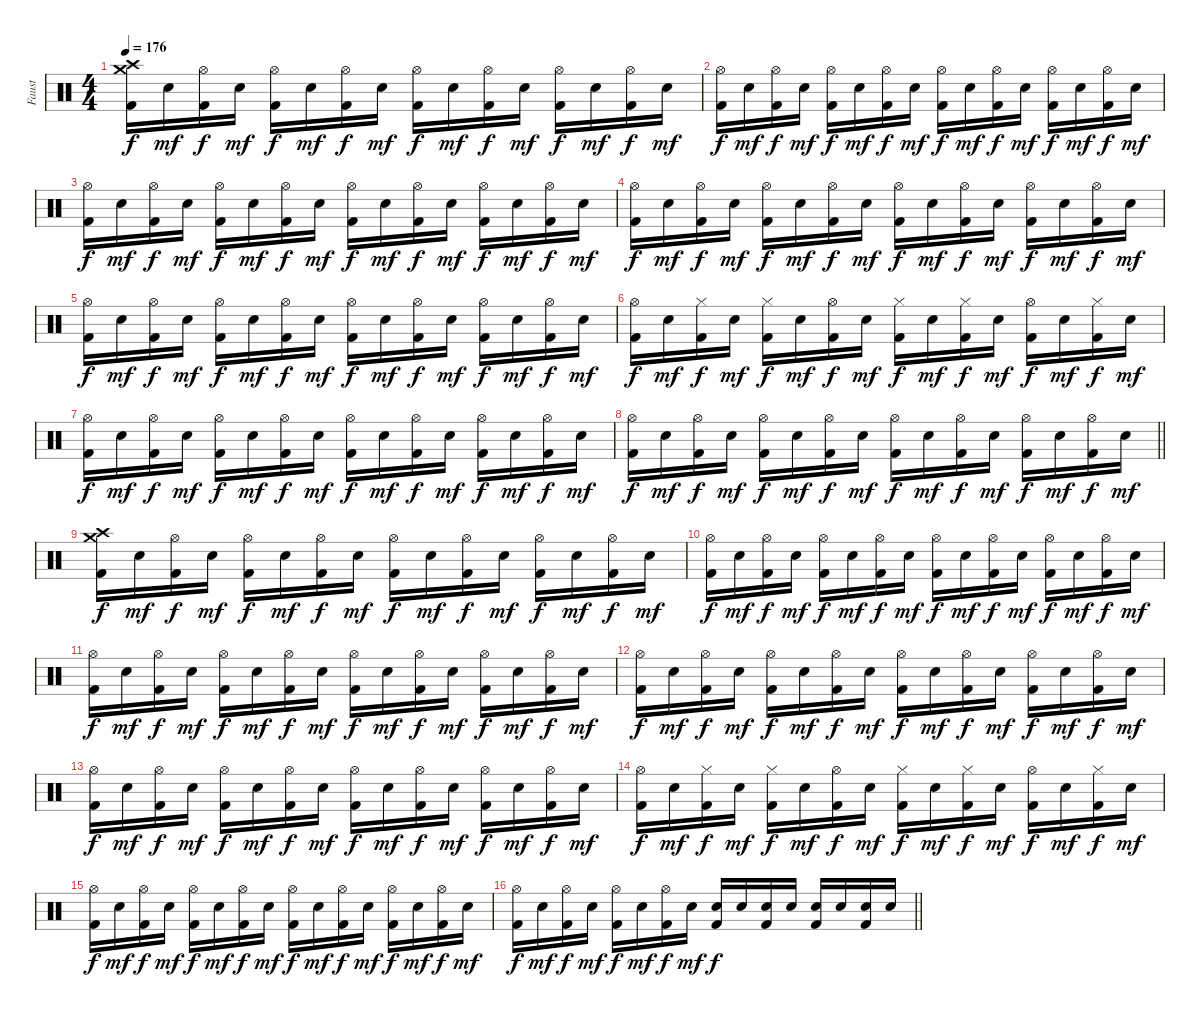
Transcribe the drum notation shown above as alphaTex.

\track ("Faust" "Faust") {instrument percussion}
\staff {score}
\articulation defaults
\ts (4 4)
\section ("" "")
\tempo 176
\clef neutral
\ks c
("Crash high (hit)" "Crash medium (hit)" "Kick (hit) 2").16{dy f} "Electric Snare (hit)".16{dy mf} ("Hi-Hat (open)" "Kick (hit) 2").16{dy f} "Electric Snare (hit)".16{dy mf} ("Hi-Hat (open)" "Kick (hit) 2").16{dy f} "Electric Snare (hit)".16{dy mf} ("Hi-Hat (open)" "Kick (hit) 2").16{dy f} "Electric Snare (hit)".16{dy mf} ("Hi-Hat (open)" "Kick (hit) 2").16{dy f} "Electric Snare (hit)".16{dy mf} ("Hi-Hat (open)" "Kick (hit) 2").16{dy f} "Electric Snare (hit)".16{dy mf} ("Hi-Hat (open)" "Kick (hit) 2").16{dy f} "Electric Snare (hit)".16{dy mf} ("Hi-Hat (open)" "Kick (hit) 2").16{dy f} "Electric Snare (hit)".16{dy mf} |
("Hi-Hat (open)" "Kick (hit) 2").16{dy f} "Electric Snare (hit)".16{dy mf} ("Hi-Hat (open)" "Kick (hit) 2").16{dy f} "Electric Snare (hit)".16{dy mf} ("Hi-Hat (open)" "Kick (hit) 2").16{dy f} "Electric Snare (hit)".16{dy mf} ("Hi-Hat (open)" "Kick (hit) 2").16{dy f} "Electric Snare (hit)".16{dy mf} ("Hi-Hat (open)" "Kick (hit) 2").16{dy f} "Electric Snare (hit)".16{dy mf} ("Hi-Hat (open)" "Kick (hit) 2").16{dy f} "Electric Snare (hit)".16{dy mf} ("Hi-Hat (open)" "Kick (hit) 2").16{dy f} "Electric Snare (hit)".16{dy mf} ("Hi-Hat (open)" "Kick (hit) 2").16{dy f} "Electric Snare (hit)".16{dy mf} |
("Hi-Hat (open)" "Kick (hit) 2").16{dy f} "Electric Snare (hit)".16{dy mf} ("Hi-Hat (open)" "Kick (hit) 2").16{dy f} "Electric Snare (hit)".16{dy mf} ("Hi-Hat (open)" "Kick (hit) 2").16{dy f} "Electric Snare (hit)".16{dy mf} ("Hi-Hat (open)" "Kick (hit) 2").16{dy f} "Electric Snare (hit)".16{dy mf} ("Hi-Hat (open)" "Kick (hit) 2").16{dy f} "Electric Snare (hit)".16{dy mf} ("Hi-Hat (open)" "Kick (hit) 2").16{dy f} "Electric Snare (hit)".16{dy mf} ("Hi-Hat (open)" "Kick (hit) 2").16{dy f} "Electric Snare (hit)".16{dy mf} ("Hi-Hat (open)" "Kick (hit) 2").16{dy f} "Electric Snare (hit)".16{dy mf} |
("Hi-Hat (open)" "Kick (hit) 2").16{dy f} "Electric Snare (hit)".16{dy mf} ("Hi-Hat (open)" "Kick (hit) 2").16{dy f} "Electric Snare (hit)".16{dy mf} ("Hi-Hat (open)" "Kick (hit) 2").16{dy f} "Electric Snare (hit)".16{dy mf} ("Hi-Hat (open)" "Kick (hit) 2").16{dy f} "Electric Snare (hit)".16{dy mf} ("Hi-Hat (open)" "Kick (hit) 2").16{dy f} "Electric Snare (hit)".16{dy mf} ("Hi-Hat (open)" "Kick (hit) 2").16{dy f} "Electric Snare (hit)".16{dy mf} ("Hi-Hat (open)" "Kick (hit) 2").16{dy f} "Electric Snare (hit)".16{dy mf} ("Hi-Hat (open)" "Kick (hit) 2").16{dy f} "Electric Snare (hit)".16{dy mf} |
("Hi-Hat (open)" "Kick (hit) 2").16{dy f} "Electric Snare (hit)".16{dy mf} ("Hi-Hat (open)" "Kick (hit) 2").16{dy f} "Electric Snare (hit)".16{dy mf} ("Hi-Hat (open)" "Kick (hit) 2").16{dy f} "Electric Snare (hit)".16{dy mf} ("Hi-Hat (open)" "Kick (hit) 2").16{dy f} "Electric Snare (hit)".16{dy mf} ("Hi-Hat (open)" "Kick (hit) 2").16{dy f} "Electric Snare (hit)".16{dy mf} ("Hi-Hat (open)" "Kick (hit) 2").16{dy f} "Electric Snare (hit)".16{dy mf} ("Hi-Hat (open)" "Kick (hit) 2").16{dy f} "Electric Snare (hit)".16{dy mf} ("Hi-Hat (open)" "Kick (hit) 2").16{dy f} "Electric Snare (hit)".16{dy mf} |
("Hi-Hat (open)" "Kick (hit) 2").16{dy f} "Electric Snare (hit)".16{dy mf} ("Hi-Hat (closed)" "Kick (hit) 2").16{dy f} "Electric Snare (hit)".16{dy mf} ("Hi-Hat (closed)" "Kick (hit) 2").16{dy f} "Electric Snare (hit)".16{dy mf} ("Hi-Hat (open)" "Kick (hit) 2").16{dy f} "Electric Snare (hit)".16{dy mf} ("Hi-Hat (closed)" "Kick (hit) 2").16{dy f} "Electric Snare (hit)".16{dy mf} ("Hi-Hat (closed)" "Kick (hit) 2").16{dy f} "Electric Snare (hit)".16{dy mf} ("Hi-Hat (open)" "Kick (hit) 2").16{dy f} "Electric Snare (hit)".16{dy mf} ("Hi-Hat (closed)" "Kick (hit) 2").16{dy f} "Electric Snare (hit)".16{dy mf} |
("Hi-Hat (open)" "Kick (hit) 2").16{dy f} "Electric Snare (hit)".16{dy mf} ("Hi-Hat (open)" "Kick (hit) 2").16{dy f} "Electric Snare (hit)".16{dy mf} ("Hi-Hat (open)" "Kick (hit) 2").16{dy f} "Electric Snare (hit)".16{dy mf} ("Hi-Hat (open)" "Kick (hit) 2").16{dy f} "Electric Snare (hit)".16{dy mf} ("Hi-Hat (open)" "Kick (hit) 2").16{dy f} "Electric Snare (hit)".16{dy mf} ("Hi-Hat (open)" "Kick (hit) 2").16{dy f} "Electric Snare (hit)".16{dy mf} ("Hi-Hat (open)" "Kick (hit) 2").16{dy f} "Electric Snare (hit)".16{dy mf} ("Hi-Hat (open)" "Kick (hit) 2").16{dy f} "Electric Snare (hit)".16{dy mf} |
\barLineRight lightlight
("Hi-Hat (open)" "Kick (hit) 2").16{dy f} "Electric Snare (hit)".16{dy mf} ("Hi-Hat (open)" "Kick (hit) 2").16{dy f} "Electric Snare (hit)".16{dy mf} ("Hi-Hat (open)" "Kick (hit) 2").16{dy f} "Electric Snare (hit)".16{dy mf} ("Hi-Hat (open)" "Kick (hit) 2").16{dy f} "Electric Snare (hit)".16{dy mf} ("Hi-Hat (open)" "Kick (hit) 2").16{dy f} "Electric Snare (hit)".16{dy mf} ("Hi-Hat (open)" "Kick (hit) 2").16{dy f} "Electric Snare (hit)".16{dy mf} ("Hi-Hat (open)" "Kick (hit) 2").16{dy f} "Electric Snare (hit)".16{dy mf} ("Hi-Hat (open)" "Kick (hit) 2").16{dy f} "Electric Snare (hit)".16{dy mf} |
\section ("" "")
("Crash high (hit)" "Crash medium (hit)" "Kick (hit) 2").16{dy f} "Electric Snare (hit)".16{dy mf} ("Hi-Hat (open)" "Kick (hit) 2").16{dy f} "Electric Snare (hit)".16{dy mf} ("Hi-Hat (open)" "Kick (hit) 2").16{dy f} "Electric Snare (hit)".16{dy mf} ("Hi-Hat (open)" "Kick (hit) 2").16{dy f} "Electric Snare (hit)".16{dy mf} ("Hi-Hat (open)" "Kick (hit) 2").16{dy f} "Electric Snare (hit)".16{dy mf} ("Hi-Hat (open)" "Kick (hit) 2").16{dy f} "Electric Snare (hit)".16{dy mf} ("Hi-Hat (open)" "Kick (hit) 2").16{dy f} "Electric Snare (hit)".16{dy mf} ("Hi-Hat (open)" "Kick (hit) 2").16{dy f} "Electric Snare (hit)".16{dy mf} |
("Hi-Hat (open)" "Kick (hit) 2").16{dy f} "Electric Snare (hit)".16{dy mf} ("Hi-Hat (open)" "Kick (hit) 2").16{dy f} "Electric Snare (hit)".16{dy mf} ("Hi-Hat (open)" "Kick (hit) 2").16{dy f} "Electric Snare (hit)".16{dy mf} ("Hi-Hat (open)" "Kick (hit) 2").16{dy f} "Electric Snare (hit)".16{dy mf} ("Hi-Hat (open)" "Kick (hit) 2").16{dy f} "Electric Snare (hit)".16{dy mf} ("Hi-Hat (open)" "Kick (hit) 2").16{dy f} "Electric Snare (hit)".16{dy mf} ("Hi-Hat (open)" "Kick (hit) 2").16{dy f} "Electric Snare (hit)".16{dy mf} ("Hi-Hat (open)" "Kick (hit) 2").16{dy f} "Electric Snare (hit)".16{dy mf} |
("Hi-Hat (open)" "Kick (hit) 2").16{dy f} "Electric Snare (hit)".16{dy mf} ("Hi-Hat (open)" "Kick (hit) 2").16{dy f} "Electric Snare (hit)".16{dy mf} ("Hi-Hat (open)" "Kick (hit) 2").16{dy f} "Electric Snare (hit)".16{dy mf} ("Hi-Hat (open)" "Kick (hit) 2").16{dy f} "Electric Snare (hit)".16{dy mf} ("Hi-Hat (open)" "Kick (hit) 2").16{dy f} "Electric Snare (hit)".16{dy mf} ("Hi-Hat (open)" "Kick (hit) 2").16{dy f} "Electric Snare (hit)".16{dy mf} ("Hi-Hat (open)" "Kick (hit) 2").16{dy f} "Electric Snare (hit)".16{dy mf} ("Hi-Hat (open)" "Kick (hit) 2").16{dy f} "Electric Snare (hit)".16{dy mf} |
("Hi-Hat (open)" "Kick (hit) 2").16{dy f} "Electric Snare (hit)".16{dy mf} ("Hi-Hat (open)" "Kick (hit) 2").16{dy f} "Electric Snare (hit)".16{dy mf} ("Hi-Hat (open)" "Kick (hit) 2").16{dy f} "Electric Snare (hit)".16{dy mf} ("Hi-Hat (open)" "Kick (hit) 2").16{dy f} "Electric Snare (hit)".16{dy mf} ("Hi-Hat (open)" "Kick (hit) 2").16{dy f} "Electric Snare (hit)".16{dy mf} ("Hi-Hat (open)" "Kick (hit) 2").16{dy f} "Electric Snare (hit)".16{dy mf} ("Hi-Hat (open)" "Kick (hit) 2").16{dy f} "Electric Snare (hit)".16{dy mf} ("Hi-Hat (open)" "Kick (hit) 2").16{dy f} "Electric Snare (hit)".16{dy mf} |
("Hi-Hat (open)" "Kick (hit) 2").16{dy f} "Electric Snare (hit)".16{dy mf} ("Hi-Hat (open)" "Kick (hit) 2").16{dy f} "Electric Snare (hit)".16{dy mf} ("Hi-Hat (open)" "Kick (hit) 2").16{dy f} "Electric Snare (hit)".16{dy mf} ("Hi-Hat (open)" "Kick (hit) 2").16{dy f} "Electric Snare (hit)".16{dy mf} ("Hi-Hat (open)" "Kick (hit) 2").16{dy f} "Electric Snare (hit)".16{dy mf} ("Hi-Hat (open)" "Kick (hit) 2").16{dy f} "Electric Snare (hit)".16{dy mf} ("Hi-Hat (open)" "Kick (hit) 2").16{dy f} "Electric Snare (hit)".16{dy mf} ("Hi-Hat (open)" "Kick (hit) 2").16{dy f} "Electric Snare (hit)".16{dy mf} |
("Hi-Hat (open)" "Kick (hit) 2").16{dy f} "Electric Snare (hit)".16{dy mf} ("Hi-Hat (closed)" "Kick (hit) 2").16{dy f} "Electric Snare (hit)".16{dy mf} ("Hi-Hat (closed)" "Kick (hit) 2").16{dy f} "Electric Snare (hit)".16{dy mf} ("Hi-Hat (open)" "Kick (hit) 2").16{dy f} "Electric Snare (hit)".16{dy mf} ("Hi-Hat (closed)" "Kick (hit) 2").16{dy f} "Electric Snare (hit)".16{dy mf} ("Hi-Hat (closed)" "Kick (hit) 2").16{dy f} "Electric Snare (hit)".16{dy mf} ("Hi-Hat (open)" "Kick (hit) 2").16{dy f} "Electric Snare (hit)".16{dy mf} ("Hi-Hat (closed)" "Kick (hit) 2").16{dy f} "Electric Snare (hit)".16{dy mf} |
("Hi-Hat (open)" "Kick (hit) 2").16{dy f} "Electric Snare (hit)".16{dy mf} ("Hi-Hat (open)" "Kick (hit) 2").16{dy f} "Electric Snare (hit)".16{dy mf} ("Hi-Hat (open)" "Kick (hit) 2").16{dy f} "Electric Snare (hit)".16{dy mf} ("Hi-Hat (open)" "Kick (hit) 2").16{dy f} "Electric Snare (hit)".16{dy mf} ("Hi-Hat (open)" "Kick (hit) 2").16{dy f} "Electric Snare (hit)".16{dy mf} ("Hi-Hat (open)" "Kick (hit) 2").16{dy f} "Electric Snare (hit)".16{dy mf} ("Hi-Hat (open)" "Kick (hit) 2").16{dy f} "Electric Snare (hit)".16{dy mf} ("Hi-Hat (open)" "Kick (hit) 2").16{dy f} "Electric Snare (hit)".16{dy mf} |
\barLineRight lightlight
("Hi-Hat (open)" "Kick (hit) 2").16{dy f} "Electric Snare (hit)".16{dy mf} ("Hi-Hat (open)" "Kick (hit) 2").16{dy f} "Electric Snare (hit)".16{dy mf} ("Hi-Hat (open)" "Kick (hit) 2").16{dy f} "Electric Snare (hit)".16{dy mf} ("Hi-Hat (open)" "Kick (hit) 2").16{dy f} "Electric Snare (hit)".16{dy mf} ("Electric Snare (hit)" "Kick (hit) 2").16{dy f} "Electric Snare (hit)".16 ("Electric Snare (hit)" "Kick (hit) 2").16 "Electric Snare (hit)".16 ("Electric Snare (hit)" "Kick (hit) 2").16 "Electric Snare (hit)".16 ("Electric Snare (hit)" "Kick (hit) 2").16 "Electric Snare (hit)".16
